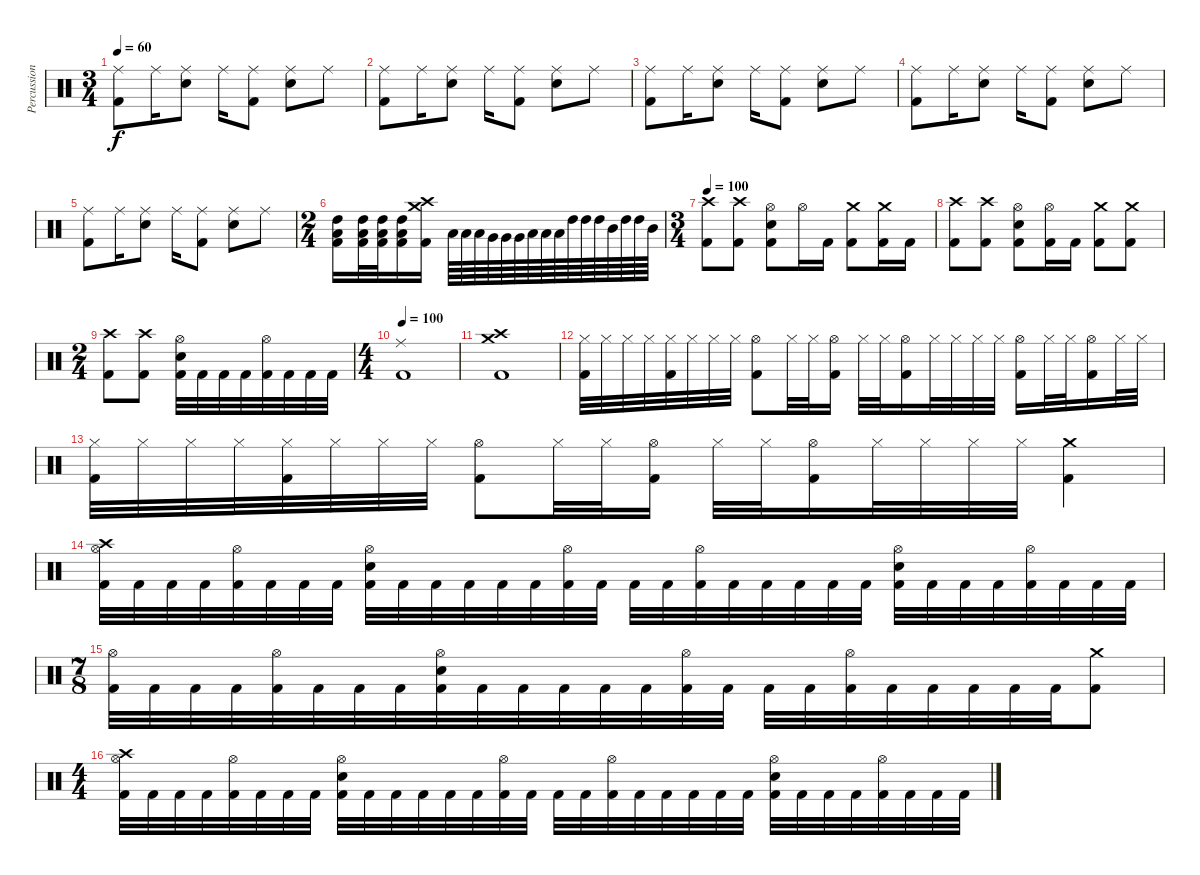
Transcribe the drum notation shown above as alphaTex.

\track ("Percussion" "Percussion") {instrument percussion}
\staff {score}
\articulation defaults
\ts (3 4)
\tempo 60
\clef neutral
\ks c
("Ride (middle)" "Kick (hit) 2").8{dy f} "Ride (middle)".16 ("Ride (middle)" "Snare (hit) 2").8 "Ride (middle)".16 ("Ride (middle)" "Kick (hit) 2").8 ("Ride (middle)" "Snare (hit) 2").8 "Ride (middle)".8 |
("Ride (middle)" "Kick (hit) 2").8 "Ride (middle)".16 ("Ride (middle)" "Snare (hit) 2").8 "Ride (middle)".16 ("Ride (middle)" "Kick (hit) 2").8 ("Ride (middle)" "Snare (hit) 2").8 "Ride (middle)".8 |
("Ride (middle)" "Kick (hit) 2").8 "Ride (middle)".16 ("Ride (middle)" "Snare (hit) 2").8 "Ride (middle)".16 ("Ride (middle)" "Kick (hit) 2").8 ("Ride (middle)" "Snare (hit) 2").8 "Ride (middle)".8 |
("Ride (middle)" "Kick (hit) 2").8 "Ride (middle)".16 ("Ride (middle)" "Snare (hit) 2").8 "Ride (middle)".16 ("Ride (middle)" "Kick (hit) 2").8 ("Ride (middle)" "Snare (hit) 2").8 "Ride (middle)".8 |
("Ride (middle)" "Kick (hit) 2").8 "Ride (middle)".16 ("Ride (middle)" "Snare (hit) 2").8 "Ride (middle)".16 ("Ride (middle)" "Kick (hit) 2").8 ("Ride (middle)" "Snare (hit) 2").8 "Ride (middle)".8 |
\ts (2 4)
("High Tom (hit)" "Low Floor Tom (hit)" "Kick (hit) 2").16 ("High Tom (hit)" "Low Floor Tom (hit)" "Kick (hit) 2").32 ("High Tom (hit)" "Low Floor Tom (hit)" "Kick (hit) 2").32 ("High Tom (hit)" "Low Floor Tom (hit)" "Kick (hit) 2").16 ("Crash medium (hit)" "Crash high (hit)" "Kick (hit) 2").16 "Low Tom (hit)".64 "Low Tom (hit)".64 "Low Tom (hit)".64 "Very Low Tom (hit)".64 "Very Low Tom (hit)".64 "Very Low Tom (hit)".64 "Low Tom (hit)".64 "Low Tom (hit)".64 "Low Tom (hit)".64 "High Tom (hit)".64 "High Tom (hit)".64 "High Tom (hit)".64 "Mid Tom (hit)".64 "High Tom (hit)".64 "High Tom (hit)".64 "Mid Tom (hit)".64 |
\ts (3 4)
\tempo 100
("Crash high (hit)" "Kick (hit) 2").8 ("Crash high (hit)" "Kick (hit) 2").8 ("Hi-Hat (open)" "Snare (hit) 2" "Kick (hit) 2").8 "Hi-Hat (open)".16 "Kick (hit) 2".16 ("Crash medium (hit)" "Kick (hit) 2").8 ("Crash medium (hit)" "Kick (hit) 2").16 "Kick (hit) 2".16 |
("Crash high (hit)" "Kick (hit) 2").8 ("Crash high (hit)" "Kick (hit) 2").8 ("Hi-Hat (open)" "Snare (hit) 2" "Kick (hit) 2").8 ("Hi-Hat (open)" "Kick (hit) 2").16 "Kick (hit) 2".16 ("Crash medium (hit)" "Kick (hit) 2").8 ("Crash medium (hit)" "Kick (hit) 2").8 |
\ts (2 4)
("Crash high (hit)" "Kick (hit) 2").8 ("Crash high (hit)" "Kick (hit) 2").8 ("Hi-Hat (open)" "Snare (hit) 2" "Kick (hit) 2").32 "Kick (hit) 2".32 "Kick (hit) 2".32 "Kick (hit) 2".32 ("Hi-Hat (open)" "Kick (hit) 2").32 "Kick (hit) 2".32 "Kick (hit) 2".32 "Kick (hit) 2".32 |
\ts (4 4)
\tempo 100
("Ride (middle)" "Kick (hit) 2").1 |
("Crash medium (hit)" "Crash high (hit)" "Kick (hit) 2").1 |
("Hi-Hat (closed)" "Kick (hit) 2").32 "Hi-Hat (closed)".32 "Hi-Hat (closed)".32 "Hi-Hat (closed)".32 ("Hi-Hat (closed)" "Kick (hit) 2").32 "Hi-Hat (closed)".32 "Hi-Hat (closed)".32 "Hi-Hat (closed)".32 ("Hi-Hat (open)" "Kick (hit) 2").8 "Hi-Hat (closed)".32 "Hi-Hat (closed)".32 ("Hi-Hat (open)" "Kick (hit) 2").16 "Hi-Hat (closed)".32 "Hi-Hat (closed)".32 ("Hi-Hat (open)" "Kick (hit) 2").16 "Hi-Hat (closed)".32 "Hi-Hat (closed)".32 "Hi-Hat (closed)".32 "Hi-Hat (closed)".32 ("Hi-Hat (open)" "Kick (hit) 2").16 "Hi-Hat (closed)".32 "Hi-Hat (closed)".32 ("Hi-Hat (open)" "Kick (hit) 2").16 "Hi-Hat (closed)".32 "Hi-Hat (closed)".32 |
("Hi-Hat (closed)" "Kick (hit) 2").32 "Hi-Hat (closed)".32 "Hi-Hat (closed)".32 "Hi-Hat (closed)".32 ("Hi-Hat (closed)" "Kick (hit) 2").32 "Hi-Hat (closed)".32 "Hi-Hat (closed)".32 "Hi-Hat (closed)".32 ("Hi-Hat (open)" "Kick (hit) 2").8 "Hi-Hat (closed)".32 "Hi-Hat (closed)".32 ("Hi-Hat (open)" "Kick (hit) 2").16 "Hi-Hat (closed)".32 "Hi-Hat (closed)".32 ("Hi-Hat (open)" "Kick (hit) 2").16 "Hi-Hat (closed)".32 "Hi-Hat (closed)".32 "Hi-Hat (closed)".32 "Hi-Hat (closed)".32 ("Crash medium (hit)" "Kick (hit) 2").4 |
("Crash high (hit)" "Hi-Hat (open)" "Kick (hit) 2").32 "Kick (hit) 2".32 "Kick (hit) 2".32 "Kick (hit) 2".32 ("Hi-Hat (open)" "Kick (hit) 2").32 "Kick (hit) 2".32 "Kick (hit) 2".32 "Kick (hit) 2".32 ("Hi-Hat (open)" "Snare (hit) 2" "Kick (hit) 2").32 "Kick (hit) 2".32 "Kick (hit) 2".32 "Kick (hit) 2".32 "Kick (hit) 2".32 "Kick (hit) 2".32 ("Hi-Hat (open)" "Kick (hit) 2").32 "Kick (hit) 2".32 "Kick (hit) 2".32 "Kick (hit) 2".32 ("Hi-Hat (open)" "Kick (hit) 2").32 "Kick (hit) 2".32 "Kick (hit) 2".32 "Kick (hit) 2".32 "Kick (hit) 2".32 "Kick (hit) 2".32 ("Hi-Hat (open)" "Snare (hit) 2" "Kick (hit) 2").32 "Kick (hit) 2".32 "Kick (hit) 2".32 "Kick (hit) 2".32 ("Hi-Hat (open)" "Kick (hit) 2").32 "Kick (hit) 2".32 "Kick (hit) 2".32 "Kick (hit) 2".32 |
\ts (7 8)
("Hi-Hat (open)" "Kick (hit) 2").32 "Kick (hit) 2".32 "Kick (hit) 2".32 "Kick (hit) 2".32 ("Hi-Hat (open)" "Kick (hit) 2").32 "Kick (hit) 2".32 "Kick (hit) 2".32 "Kick (hit) 2".32 ("Hi-Hat (open)" "Snare (hit) 2" "Kick (hit) 2").32 "Kick (hit) 2".32 "Kick (hit) 2".32 "Kick (hit) 2".32 "Kick (hit) 2".32 "Kick (hit) 2".32 ("Hi-Hat (open)" "Kick (hit) 2").32 "Kick (hit) 2".32 "Kick (hit) 2".32 "Kick (hit) 2".32 ("Hi-Hat (open)" "Kick (hit) 2").32 "Kick (hit) 2".32 "Kick (hit) 2".32 "Kick (hit) 2".32 "Kick (hit) 2".32 "Kick (hit) 2".32 ("Crash medium (hit)" "Kick (hit) 2").8 |
\ts (4 4)
("Crash high (hit)" "Hi-Hat (open)" "Kick (hit) 2").32 "Kick (hit) 2".32 "Kick (hit) 2".32 "Kick (hit) 2".32 ("Hi-Hat (open)" "Kick (hit) 2").32 "Kick (hit) 2".32 "Kick (hit) 2".32 "Kick (hit) 2".32 ("Hi-Hat (open)" "Snare (hit) 2" "Kick (hit) 2").32 "Kick (hit) 2".32 "Kick (hit) 2".32 "Kick (hit) 2".32 "Kick (hit) 2".32 "Kick (hit) 2".32 ("Hi-Hat (open)" "Kick (hit) 2").32 "Kick (hit) 2".32 "Kick (hit) 2".32 "Kick (hit) 2".32 ("Hi-Hat (open)" "Kick (hit) 2").32 "Kick (hit) 2".32 "Kick (hit) 2".32 "Kick (hit) 2".32 "Kick (hit) 2".32 "Kick (hit) 2".32 ("Hi-Hat (open)" "Snare (hit) 2" "Kick (hit) 2").32 "Kick (hit) 2".32 "Kick (hit) 2".32 "Kick (hit) 2".32 ("Hi-Hat (open)" "Kick (hit) 2").32 "Kick (hit) 2".32 "Kick (hit) 2".32 "Kick (hit) 2".32
